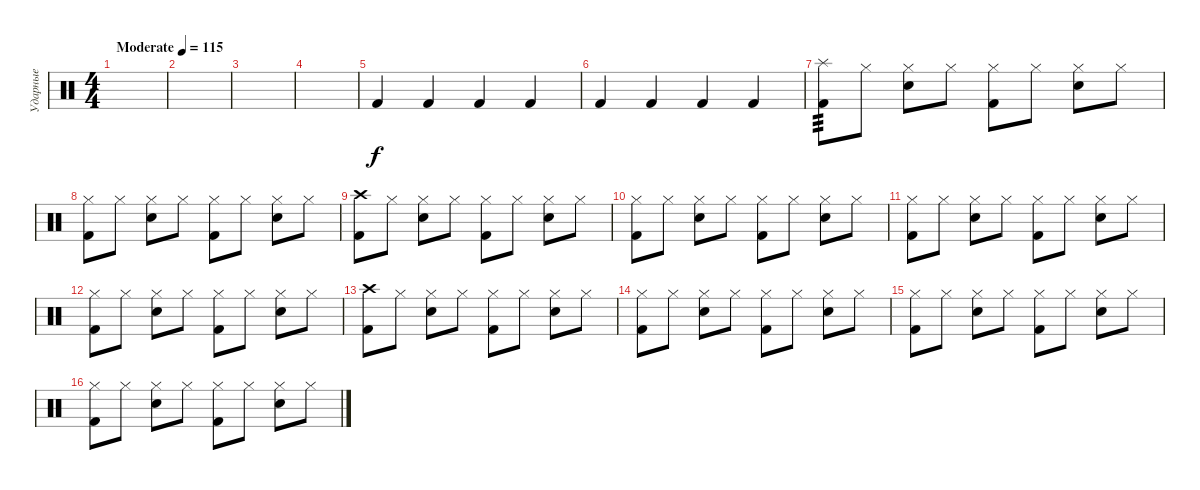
\track ("Ударные" "Ударные") {instrument percussion}
\staff {score}
\articulation defaults
\ts (4 4)
\tempo (115 "Moderate")
\clef neutral
\ks c
|
|
|
|
"Kick (hit) 2".4 "Kick (hit) 2".4 "Kick (hit) 2".4 "Kick (hit) 2".4 |
"Kick (hit) 2".4 "Kick (hit) 2".4 "Kick (hit) 2".4 "Kick (hit) 2".4 |
("Splash (hit)" "Kick (hit) 2").8{tp 3} "Hi-Hat (closed)".8 ("Hi-Hat (closed)" "Snare (hit) 2").8 "Hi-Hat (closed)".8 ("Hi-Hat (closed)" "Kick (hit) 2").8 "Hi-Hat (closed)".8 ("Hi-Hat (closed)" "Snare (hit) 2").8 "Hi-Hat (closed)".8 |
("Hi-Hat (closed)" "Kick (hit) 2").8 "Hi-Hat (closed)".8 ("Hi-Hat (closed)" "Snare (hit) 2").8 "Hi-Hat (closed)".8 ("Hi-Hat (closed)" "Kick (hit) 2").8 "Hi-Hat (closed)".8 ("Hi-Hat (closed)" "Snare (hit) 2").8 "Hi-Hat (closed)".8 |
("Crash high (hit)" "Kick (hit) 2").8 "Hi-Hat (closed)".8 ("Hi-Hat (closed)" "Snare (hit) 2").8 "Hi-Hat (closed)".8 ("Hi-Hat (closed)" "Kick (hit) 2").8 "Hi-Hat (closed)".8 ("Hi-Hat (closed)" "Snare (hit) 2").8 "Hi-Hat (closed)".8 |
("Hi-Hat (closed)" "Kick (hit) 2").8 "Hi-Hat (closed)".8 ("Hi-Hat (closed)" "Snare (hit) 2").8 "Hi-Hat (closed)".8 ("Hi-Hat (closed)" "Kick (hit) 2").8 "Hi-Hat (closed)".8 ("Hi-Hat (closed)" "Snare (hit) 2").8 "Hi-Hat (closed)".8 |
("Hi-Hat (closed)" "Kick (hit) 2").8 "Hi-Hat (closed)".8 ("Hi-Hat (closed)" "Snare (hit) 2").8 "Hi-Hat (closed)".8 ("Hi-Hat (closed)" "Kick (hit) 2").8 "Hi-Hat (closed)".8 ("Hi-Hat (closed)" "Snare (hit) 2").8 "Hi-Hat (closed)".8 |
("Hi-Hat (closed)" "Kick (hit) 2").8 "Hi-Hat (closed)".8 ("Hi-Hat (closed)" "Snare (hit) 2").8 "Hi-Hat (closed)".8 ("Hi-Hat (closed)" "Kick (hit) 2").8 "Hi-Hat (closed)".8 ("Hi-Hat (closed)" "Snare (hit) 2").8 "Hi-Hat (closed)".8 |
("Crash high (hit)" "Kick (hit) 2").8 "Hi-Hat (closed)".8 ("Hi-Hat (closed)" "Snare (hit) 2").8 "Hi-Hat (closed)".8 ("Hi-Hat (closed)" "Kick (hit) 2").8 "Hi-Hat (closed)".8 ("Hi-Hat (closed)" "Snare (hit) 2").8 "Hi-Hat (closed)".8 |
("Hi-Hat (closed)" "Kick (hit) 2").8 "Hi-Hat (closed)".8 ("Hi-Hat (closed)" "Snare (hit) 2").8 "Hi-Hat (closed)".8 ("Hi-Hat (closed)" "Kick (hit) 2").8 "Hi-Hat (closed)".8 ("Hi-Hat (closed)" "Snare (hit) 2").8 "Hi-Hat (closed)".8 |
("Hi-Hat (closed)" "Kick (hit) 2").8 "Hi-Hat (closed)".8 ("Hi-Hat (closed)" "Snare (hit) 2").8 "Hi-Hat (closed)".8 ("Hi-Hat (closed)" "Kick (hit) 2").8 "Hi-Hat (closed)".8 ("Hi-Hat (closed)" "Snare (hit) 2").8 "Hi-Hat (closed)".8 |
("Hi-Hat (closed)" "Kick (hit) 2").8 "Hi-Hat (closed)".8 ("Hi-Hat (closed)" "Snare (hit) 2").8 "Hi-Hat (closed)".8 ("Hi-Hat (closed)" "Kick (hit) 2").8 "Hi-Hat (closed)".8 ("Hi-Hat (closed)" "Snare (hit) 2").8 "Hi-Hat (closed)".8
